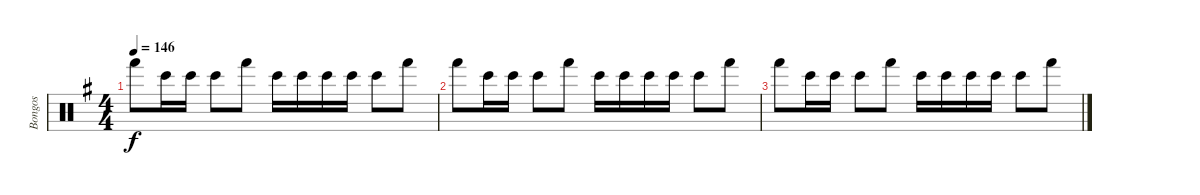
\track ("Bongos" "Bongos") {instrument percussion}
\staff {score}
\articulation defaults
\ts (4 4)
\tempo 146
\clef neutral
\ks g "Hand (hit)".8{dy f} "Bongo High (hit)".16 "Bongo High (hit)".16 "Bongo High (hit)".8 "Hand (hit)".8 "Bongo High (hit)".16 "Bongo High (hit)".16 "Bongo High (hit)".16 "Bongo High (hit)".16 "Bongo High (hit)".8 "Hand (hit)".8
|
"Hand (hit)".8 "Bongo High (hit)".16 "Bongo High (hit)".16 "Bongo High (hit)".8 "Hand (hit)".8 "Bongo High (hit)".16 "Bongo High (hit)".16 "Bongo High (hit)".16 "Bongo High (hit)".16 "Bongo High (hit)".8 "Hand (hit)".8 |
"Hand (hit)".8 "Bongo High (hit)".16 "Bongo High (hit)".16 "Bongo High (hit)".8 "Hand (hit)".8 "Bongo High (hit)".16 "Bongo High (hit)".16 "Bongo High (hit)".16 "Bongo High (hit)".16 "Bongo High (hit)".8 "Hand (hit)".8
